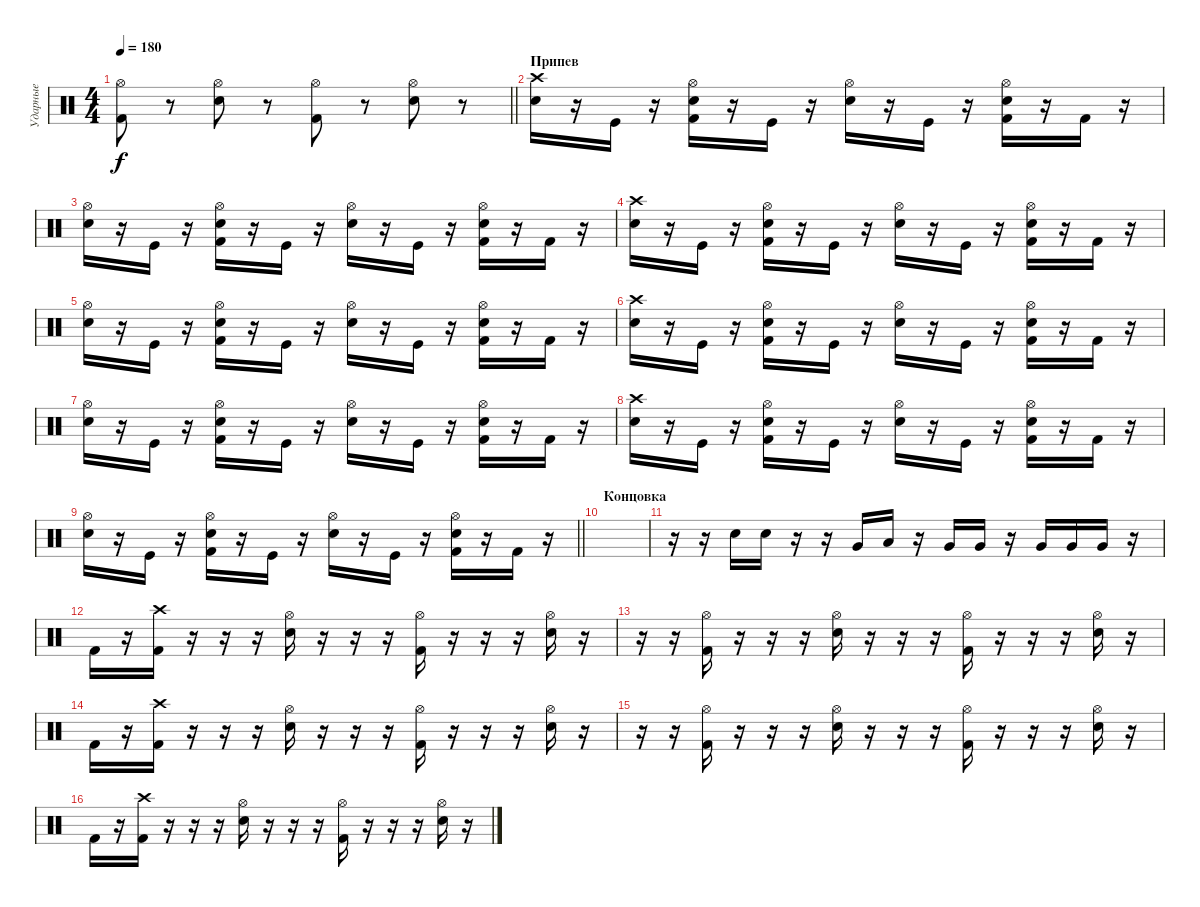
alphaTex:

\track ("Ударные" "Ударные") {instrument percussion}
\staff {score}
\articulation defaults
\ts (4 4)
\tempo 180
\clef neutral
\barLineRight lightlight
\ks c
("Hi-Hat (open)" "Kick (hit) 2").8{dy f} r.8 ("Hi-Hat (open)" "Electric Snare (hit)").8 r.8 ("Hi-Hat (open)" "Kick (hit) 2").8 r.8 ("Hi-Hat (open)" "Electric Snare (hit)").8 r.8 |
\section ("" "Припев")
("Electric Snare (hit)" "Crash high (hit)").16 r.16 "Kick (hit)".16 r.16 ("Kick (hit) 2" "Hi-Hat (open)" "Electric Snare (hit)").16 r.16 "Kick (hit)".16 r.16 ("Electric Snare (hit)" "Hi-Hat (open)").16 r.16 "Kick (hit)".16 r.16 ("Kick (hit) 2" "Hi-Hat (open)" "Electric Snare (hit)").16 r.16 "Kick (hit) 2".16 r.16 |
("Electric Snare (hit)" "Hi-Hat (open)").16 r.16 "Kick (hit)".16 r.16 ("Kick (hit) 2" "Hi-Hat (open)" "Electric Snare (hit)").16 r.16 "Kick (hit)".16 r.16 ("Electric Snare (hit)" "Hi-Hat (open)").16 r.16 "Kick (hit)".16 r.16 ("Kick (hit) 2" "Hi-Hat (open)" "Electric Snare (hit)").16 r.16 "Kick (hit) 2".16 r.16 |
("Electric Snare (hit)" "Crash high (hit)").16 r.16 "Kick (hit)".16 r.16 ("Kick (hit) 2" "Hi-Hat (open)" "Electric Snare (hit)").16 r.16 "Kick (hit)".16 r.16 ("Electric Snare (hit)" "Hi-Hat (open)").16 r.16 "Kick (hit)".16 r.16 ("Kick (hit) 2" "Hi-Hat (open)" "Electric Snare (hit)").16 r.16 "Kick (hit) 2".16 r.16 |
("Electric Snare (hit)" "Hi-Hat (open)").16 r.16 "Kick (hit)".16 r.16 ("Kick (hit) 2" "Hi-Hat (open)" "Electric Snare (hit)").16 r.16 "Kick (hit)".16 r.16 ("Electric Snare (hit)" "Hi-Hat (open)").16 r.16 "Kick (hit)".16 r.16 ("Kick (hit) 2" "Hi-Hat (open)" "Electric Snare (hit)").16 r.16 "Kick (hit) 2".16 r.16 |
("Electric Snare (hit)" "Crash high (hit)").16 r.16 "Kick (hit)".16 r.16 ("Kick (hit) 2" "Hi-Hat (open)" "Electric Snare (hit)").16 r.16 "Kick (hit)".16 r.16 ("Electric Snare (hit)" "Hi-Hat (open)").16 r.16 "Kick (hit)".16 r.16 ("Kick (hit) 2" "Hi-Hat (open)" "Electric Snare (hit)").16 r.16 "Kick (hit) 2".16 r.16 |
("Electric Snare (hit)" "Hi-Hat (open)").16 r.16 "Kick (hit)".16 r.16 ("Kick (hit) 2" "Hi-Hat (open)" "Electric Snare (hit)").16 r.16 "Kick (hit)".16 r.16 ("Electric Snare (hit)" "Hi-Hat (open)").16 r.16 "Kick (hit)".16 r.16 ("Kick (hit) 2" "Hi-Hat (open)" "Electric Snare (hit)").16 r.16 "Kick (hit) 2".16 r.16 |
("Electric Snare (hit)" "Crash high (hit)").16 r.16 "Kick (hit)".16 r.16 ("Kick (hit) 2" "Hi-Hat (open)" "Electric Snare (hit)").16 r.16 "Kick (hit)".16 r.16 ("Electric Snare (hit)" "Hi-Hat (open)").16 r.16 "Kick (hit)".16 r.16 ("Kick (hit) 2" "Hi-Hat (open)" "Electric Snare (hit)").16 r.16 "Kick (hit) 2".16 r.16 |
\barLineRight lightlight
("Electric Snare (hit)" "Hi-Hat (open)").16 r.16 "Kick (hit)".16 r.16 ("Kick (hit) 2" "Hi-Hat (open)" "Electric Snare (hit)").16 r.16 "Kick (hit)".16 r.16 ("Electric Snare (hit)" "Hi-Hat (open)").16 r.16 "Kick (hit)".16 r.16 ("Kick (hit) 2" "Hi-Hat (open)" "Electric Snare (hit)").16 r.16 "Kick (hit) 2".16 r.16 |
\section ("" "Концовка")
|
r.16 r.16 "Electric Snare (hit)".16 "Electric Snare (hit)".16 r.16 r.16 "Very Low Tom (hit)".16 "Low Tom (hit)".16 r.16 "Very Low Tom (hit)".16 "Very Low Tom (hit)".16 r.16 "Very Low Tom (hit)".16 "Very Low Tom (hit)".16 "Very Low Tom (hit)".16 r.16 |
"Kick (hit) 2".16 r.16 ("Crash high (hit)" "Kick (hit) 2").16 r.16 r.16 r.16 ("Hi-Hat (open)" "Electric Snare (hit)").16 r.16 r.16 r.16 ("Hi-Hat (open)" "Kick (hit) 2").16 r.16 r.16 r.16 ("Hi-Hat (open)" "Electric Snare (hit)").16 r.16 |
r.16 r.16 ("Hi-Hat (open)" "Kick (hit) 2").16 r.16 r.16 r.16 ("Hi-Hat (open)" "Electric Snare (hit)").16 r.16 r.16 r.16 ("Hi-Hat (open)" "Kick (hit) 2").16 r.16 r.16 r.16 ("Hi-Hat (open)" "Electric Snare (hit)").16 r.16 |
"Kick (hit) 2".16 r.16 ("Crash high (hit)" "Kick (hit) 2").16 r.16 r.16 r.16 ("Hi-Hat (open)" "Electric Snare (hit)").16 r.16 r.16 r.16 ("Hi-Hat (open)" "Kick (hit) 2").16 r.16 r.16 r.16 ("Hi-Hat (open)" "Electric Snare (hit)").16 r.16 |
r.16 r.16 ("Hi-Hat (open)" "Kick (hit) 2").16 r.16 r.16 r.16 ("Hi-Hat (open)" "Electric Snare (hit)").16 r.16 r.16 r.16 ("Hi-Hat (open)" "Kick (hit) 2").16 r.16 r.16 r.16 ("Hi-Hat (open)" "Electric Snare (hit)").16 r.16 |
"Kick (hit) 2".16 r.16 ("Crash high (hit)" "Kick (hit) 2").16 r.16 r.16 r.16 ("Hi-Hat (open)" "Electric Snare (hit)").16 r.16 r.16 r.16 ("Hi-Hat (open)" "Kick (hit) 2").16 r.16 r.16 r.16 ("Hi-Hat (open)" "Electric Snare (hit)").16 r.16
